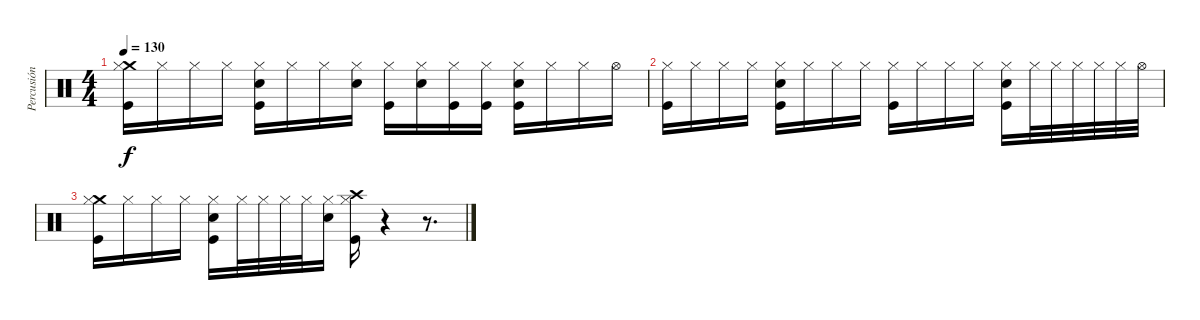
\track ("Percusión" "Percusión") {instrument percussion}
\staff {score}
\articulation defaults
\ts (4 4)
\tempo 130
\clef neutral
\ks c
("Kick (hit)" "Crash medium (hit)" "Hi-Hat (closed)").16{dy f} "Hi-Hat (closed)".16 "Hi-Hat (closed)".16 "Hi-Hat (closed)".16 ("Kick (hit)" "Snare (hit) 2" "Hi-Hat (closed)").16 "Hi-Hat (closed)".16 "Hi-Hat (closed)".16 ("Snare (hit) 2" "Hi-Hat (closed)").16 ("Kick (hit)" "Hi-Hat (closed)").16 ("Snare (hit) 2" "Hi-Hat (closed)").16 ("Kick (hit)" "Hi-Hat (closed)").16 ("Kick (hit)" "Hi-Hat (closed)").16 ("Kick (hit)" "Snare (hit) 2" "Hi-Hat (closed)").16 "Hi-Hat (closed)".16 "Hi-Hat (closed)".16 "Hi-Hat (open)".16 |
("Kick (hit)" "Hi-Hat (closed)").16 "Hi-Hat (closed)".16 "Hi-Hat (closed)".16 "Hi-Hat (closed)".16 ("Kick (hit)" "Snare (hit) 2" "Hi-Hat (closed)").16 "Hi-Hat (closed)".16 "Hi-Hat (closed)".16 "Hi-Hat (closed)".16 ("Kick (hit)" "Hi-Hat (closed)").16 "Hi-Hat (closed)".16 "Hi-Hat (closed)".16 "Hi-Hat (closed)".16 ("Kick (hit)" "Snare (hit) 2" "Hi-Hat (closed)").16 "Hi-Hat (closed)".32 "Hi-Hat (closed)".32 "Hi-Hat (closed)".32 "Hi-Hat (closed)".32 "Hi-Hat (closed)".32 "Hi-Hat (open)".32 |
("Kick (hit)" "Crash medium (hit)" "Hi-Hat (closed)").16 "Hi-Hat (closed)".16 "Hi-Hat (closed)".16 "Hi-Hat (closed)".16 ("Kick (hit)" "Snare (hit) 2" "Hi-Hat (closed)").16 "Hi-Hat (closed)".32 "Hi-Hat (closed)".32 "Hi-Hat (closed)".32 "Hi-Hat (closed)".32 ("Snare (hit) 2" "Hi-Hat (closed)").16 ("Kick (hit)" "Crash high (hit)" "Hi-Hat (closed)").16 r.4 r.8{d}
